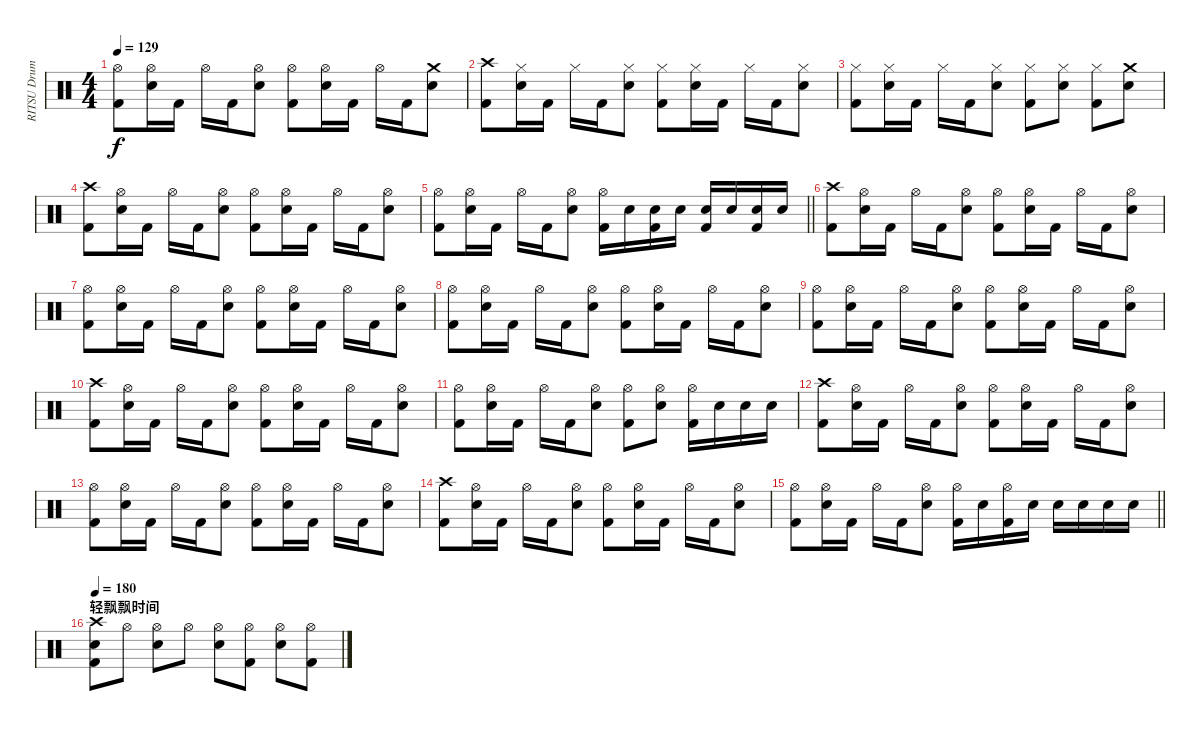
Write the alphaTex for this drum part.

\track ("RITSU Drums" "RITSU Drum") {instrument percussion}
\staff {score}
\articulation defaults
\ts (4 4)
\tempo 129
\clef neutral
\ks c
("Hi-Hat (open)" "Kick (hit) 2").8{dy f} ("Hi-Hat (open)" "Electric Snare (hit)").16 "Kick (hit) 2".16 "Hi-Hat (open)".16 "Kick (hit) 2".16 ("Hi-Hat (open)" "Electric Snare (hit)").8 ("Hi-Hat (open)" "Kick (hit) 2").8 ("Hi-Hat (open)" "Electric Snare (hit)").16 "Kick (hit) 2".16 "Hi-Hat (open)".16 "Kick (hit) 2".16 ("Crash medium (hit)" "Electric Snare (hit)").8 |
("Crash high (hit)" "Kick (hit) 2").8 ("Hi-Hat (closed)" "Electric Snare (hit)").16 "Kick (hit) 2".16 "Hi-Hat (closed)".16 "Kick (hit) 2".16 ("Hi-Hat (closed)" "Electric Snare (hit)").8 ("Hi-Hat (closed)" "Kick (hit) 2").8 ("Hi-Hat (closed)" "Electric Snare (hit)").16 "Kick (hit) 2".16 "Hi-Hat (closed)".16 "Kick (hit) 2".16 ("Hi-Hat (closed)" "Electric Snare (hit)").8 |
("Hi-Hat (closed)" "Kick (hit) 2").8 ("Hi-Hat (closed)" "Electric Snare (hit)").16 "Kick (hit) 2".16 "Hi-Hat (closed)".16 "Kick (hit) 2".16 ("Hi-Hat (closed)" "Electric Snare (hit)").8 ("Hi-Hat (closed)" "Kick (hit) 2").8 ("Hi-Hat (closed)" "Electric Snare (hit)").8 ("Hi-Hat (closed)" "Kick (hit) 2").8 ("Crash medium (hit)" "Electric Snare (hit)").8 |
("Crash high (hit)" "Kick (hit) 2").8 ("Hi-Hat (open)" "Electric Snare (hit)").16 "Kick (hit) 2".16 "Hi-Hat (open)".16 "Kick (hit) 2".16 ("Hi-Hat (open)" "Electric Snare (hit)").8 ("Hi-Hat (open)" "Kick (hit) 2").8 ("Hi-Hat (open)" "Electric Snare (hit)").16 "Kick (hit) 2".16 "Hi-Hat (open)".16 "Kick (hit) 2".16 ("Hi-Hat (open)" "Electric Snare (hit)").8 |
\barLineRight lightlight
("Hi-Hat (open)" "Kick (hit) 2").8 ("Hi-Hat (open)" "Electric Snare (hit)").16 "Kick (hit) 2".16 "Hi-Hat (open)".16 "Kick (hit) 2".16 ("Hi-Hat (open)" "Electric Snare (hit)").8 ("Hi-Hat (open)" "Kick (hit) 2").16 "Electric Snare (hit)".16 ("Electric Snare (hit)" "Kick (hit) 2").16 "Electric Snare (hit)".16 ("Electric Snare (hit)" "Kick (hit) 2").16 "Electric Snare (hit)".16 ("Electric Snare (hit)" "Kick (hit) 2").16 "Electric Snare (hit)".16 |
("Crash high (hit)" "Kick (hit) 2").8 ("Hi-Hat (open)" "Electric Snare (hit)").16 "Kick (hit) 2".16 "Hi-Hat (open)".16 "Kick (hit) 2".16 ("Hi-Hat (open)" "Electric Snare (hit)").8 ("Hi-Hat (open)" "Kick (hit) 2").8 ("Hi-Hat (open)" "Electric Snare (hit)").16 "Kick (hit) 2".16 "Hi-Hat (open)".16 "Kick (hit) 2".16 ("Hi-Hat (open)" "Electric Snare (hit)").8 |
("Hi-Hat (open)" "Kick (hit) 2").8 ("Hi-Hat (open)" "Electric Snare (hit)").16 "Kick (hit) 2".16 "Hi-Hat (open)".16 "Kick (hit) 2".16 ("Hi-Hat (open)" "Electric Snare (hit)").8 ("Hi-Hat (open)" "Kick (hit) 2").8 ("Hi-Hat (open)" "Electric Snare (hit)").16 "Kick (hit) 2".16 "Hi-Hat (open)".16 "Kick (hit) 2".16 ("Hi-Hat (open)" "Electric Snare (hit)").8 |
("Hi-Hat (open)" "Kick (hit) 2").8 ("Hi-Hat (open)" "Electric Snare (hit)").16 "Kick (hit) 2".16 "Hi-Hat (open)".16 "Kick (hit) 2".16 ("Hi-Hat (open)" "Electric Snare (hit)").8 ("Hi-Hat (open)" "Kick (hit) 2").8 ("Hi-Hat (open)" "Electric Snare (hit)").16 "Kick (hit) 2".16 "Hi-Hat (open)".16 "Kick (hit) 2".16 ("Hi-Hat (open)" "Electric Snare (hit)").8 |
("Hi-Hat (open)" "Kick (hit) 2").8 ("Hi-Hat (open)" "Electric Snare (hit)").16 "Kick (hit) 2".16 "Hi-Hat (open)".16 "Kick (hit) 2".16 ("Hi-Hat (open)" "Electric Snare (hit)").8 ("Hi-Hat (open)" "Kick (hit) 2").8 ("Hi-Hat (open)" "Electric Snare (hit)").16 "Kick (hit) 2".16 "Hi-Hat (open)".16 "Kick (hit) 2".16 ("Hi-Hat (open)" "Electric Snare (hit)").8 |
("Crash high (hit)" "Kick (hit) 2").8 ("Hi-Hat (open)" "Electric Snare (hit)").16 "Kick (hit) 2".16 "Hi-Hat (open)".16 "Kick (hit) 2".16 ("Hi-Hat (open)" "Electric Snare (hit)").8 ("Hi-Hat (open)" "Kick (hit) 2").8 ("Hi-Hat (open)" "Electric Snare (hit)").16 "Kick (hit) 2".16 "Hi-Hat (open)".16 "Kick (hit) 2".16 ("Hi-Hat (open)" "Electric Snare (hit)").8 |
("Hi-Hat (open)" "Kick (hit) 2").8 ("Hi-Hat (open)" "Electric Snare (hit)").16 "Kick (hit) 2".16 "Hi-Hat (open)".16 "Kick (hit) 2".16 ("Hi-Hat (open)" "Electric Snare (hit)").8 ("Hi-Hat (open)" "Kick (hit) 2").8 ("Hi-Hat (open)" "Electric Snare (hit)").8 ("Hi-Hat (open)" "Kick (hit) 2").16 "Electric Snare (hit)".16 "Electric Snare (hit)".16 "Electric Snare (hit)".16 |
("Crash high (hit)" "Kick (hit) 2").8 ("Hi-Hat (open)" "Electric Snare (hit)").16 "Kick (hit) 2".16 "Hi-Hat (open)".16 "Kick (hit) 2".16 ("Hi-Hat (open)" "Electric Snare (hit)").8 ("Hi-Hat (open)" "Kick (hit) 2").8 ("Hi-Hat (open)" "Electric Snare (hit)").16 "Kick (hit) 2".16 "Hi-Hat (open)".16 "Kick (hit) 2".16 ("Hi-Hat (open)" "Electric Snare (hit)").8 |
("Hi-Hat (open)" "Kick (hit) 2").8 ("Hi-Hat (open)" "Electric Snare (hit)").16 "Kick (hit) 2".16 "Hi-Hat (open)".16 "Kick (hit) 2".16 ("Hi-Hat (open)" "Electric Snare (hit)").8 ("Hi-Hat (open)" "Kick (hit) 2").8 ("Hi-Hat (open)" "Electric Snare (hit)").16 "Kick (hit) 2".16 "Hi-Hat (open)".16 "Kick (hit) 2".16 ("Hi-Hat (open)" "Electric Snare (hit)").8 |
("Crash high (hit)" "Kick (hit) 2").8 ("Hi-Hat (open)" "Electric Snare (hit)").16 "Kick (hit) 2".16 "Hi-Hat (open)".16 "Kick (hit) 2".16 ("Hi-Hat (open)" "Electric Snare (hit)").8 ("Hi-Hat (open)" "Kick (hit) 2").8 ("Hi-Hat (open)" "Electric Snare (hit)").16 "Kick (hit) 2".16 "Hi-Hat (open)".16 "Kick (hit) 2".16 ("Hi-Hat (open)" "Electric Snare (hit)").8 |
\barLineRight lightlight
("Hi-Hat (open)" "Kick (hit) 2").8 ("Hi-Hat (open)" "Electric Snare (hit)").16 "Kick (hit) 2".16 "Hi-Hat (open)".16 "Kick (hit) 2".16 ("Hi-Hat (open)" "Electric Snare (hit)").8 ("Hi-Hat (open)" "Kick (hit) 2").16 "Electric Snare (hit)".16 ("Hi-Hat (open)" "Kick (hit) 2").16 "Electric Snare (hit)".16 "Electric Snare (hit)".16 "Electric Snare (hit)".16 "Electric Snare (hit)".16 "Electric Snare (hit)".16 |
\section ("" "轻飘飘时间")
\tempo 180
("Crash high (hit)" "Electric Snare (hit)" "Kick (hit) 2").8 "Hi-Hat (open)".8 ("Hi-Hat (open)" "Electric Snare (hit)").8 "Hi-Hat (open)".8 ("Hi-Hat (open)" "Electric Snare (hit)").8 ("Hi-Hat (open)" "Kick (hit) 2").8 ("Hi-Hat (open)" "Electric Snare (hit)").8 ("Hi-Hat (open)" "Kick (hit) 2").8
